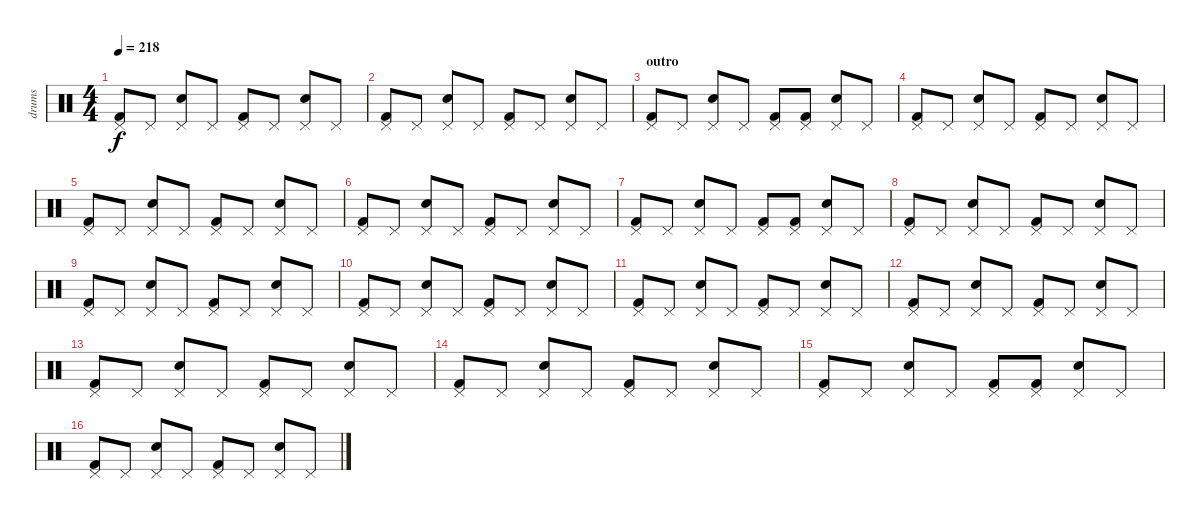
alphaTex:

\track ("drums" "drums") {instrument percussion}
\staff {score}
\articulation defaults
\ts (4 4)
\tempo 218
\clef neutral
\ks c
("Kick (hit) 2" "Pedal Hi-Hat (hit)").8{dy f} "Pedal Hi-Hat (hit)".8 ("Snare (hit) 2" "Pedal Hi-Hat (hit)").8 "Pedal Hi-Hat (hit)".8 ("Kick (hit) 2" "Pedal Hi-Hat (hit)").8 "Pedal Hi-Hat (hit)".8 ("Snare (hit) 2" "Pedal Hi-Hat (hit)").8 "Pedal Hi-Hat (hit)".8 |
("Kick (hit) 2" "Pedal Hi-Hat (hit)").8 "Pedal Hi-Hat (hit)".8 ("Snare (hit) 2" "Pedal Hi-Hat (hit)").8 "Pedal Hi-Hat (hit)".8 ("Kick (hit) 2" "Pedal Hi-Hat (hit)").8 "Pedal Hi-Hat (hit)".8 ("Snare (hit) 2" "Pedal Hi-Hat (hit)").8 "Pedal Hi-Hat (hit)".8 |
\section ("" "outro")
("Kick (hit) 2" "Pedal Hi-Hat (hit)").8 "Pedal Hi-Hat (hit)".8 ("Snare (hit) 2" "Pedal Hi-Hat (hit)").8 "Pedal Hi-Hat (hit)".8 ("Kick (hit) 2" "Pedal Hi-Hat (hit)").8 ("Kick (hit) 2" "Pedal Hi-Hat (hit)").8 ("Snare (hit) 2" "Pedal Hi-Hat (hit)").8 "Pedal Hi-Hat (hit)".8 |
("Kick (hit) 2" "Pedal Hi-Hat (hit)").8 "Pedal Hi-Hat (hit)".8 ("Snare (hit) 2" "Pedal Hi-Hat (hit)").8 "Pedal Hi-Hat (hit)".8 ("Kick (hit) 2" "Pedal Hi-Hat (hit)").8 "Pedal Hi-Hat (hit)".8 ("Snare (hit) 2" "Pedal Hi-Hat (hit)").8 "Pedal Hi-Hat (hit)".8 |
("Kick (hit) 2" "Pedal Hi-Hat (hit)").8 "Pedal Hi-Hat (hit)".8 ("Snare (hit) 2" "Pedal Hi-Hat (hit)").8 "Pedal Hi-Hat (hit)".8 ("Kick (hit) 2" "Pedal Hi-Hat (hit)").8 "Pedal Hi-Hat (hit)".8 ("Snare (hit) 2" "Pedal Hi-Hat (hit)").8 "Pedal Hi-Hat (hit)".8 |
("Kick (hit) 2" "Pedal Hi-Hat (hit)").8 "Pedal Hi-Hat (hit)".8 ("Snare (hit) 2" "Pedal Hi-Hat (hit)").8 "Pedal Hi-Hat (hit)".8 ("Kick (hit) 2" "Pedal Hi-Hat (hit)").8 "Pedal Hi-Hat (hit)".8 ("Snare (hit) 2" "Pedal Hi-Hat (hit)").8 "Pedal Hi-Hat (hit)".8 |
("Kick (hit) 2" "Pedal Hi-Hat (hit)").8 "Pedal Hi-Hat (hit)".8 ("Snare (hit) 2" "Pedal Hi-Hat (hit)").8 "Pedal Hi-Hat (hit)".8 ("Kick (hit) 2" "Pedal Hi-Hat (hit)").8 ("Kick (hit) 2" "Pedal Hi-Hat (hit)").8 ("Snare (hit) 2" "Pedal Hi-Hat (hit)").8 "Pedal Hi-Hat (hit)".8 |
("Kick (hit) 2" "Pedal Hi-Hat (hit)").8 "Pedal Hi-Hat (hit)".8 ("Snare (hit) 2" "Pedal Hi-Hat (hit)").8 "Pedal Hi-Hat (hit)".8 ("Kick (hit) 2" "Pedal Hi-Hat (hit)").8 "Pedal Hi-Hat (hit)".8 ("Snare (hit) 2" "Pedal Hi-Hat (hit)").8 "Pedal Hi-Hat (hit)".8 |
("Kick (hit) 2" "Pedal Hi-Hat (hit)").8 "Pedal Hi-Hat (hit)".8 ("Snare (hit) 2" "Pedal Hi-Hat (hit)").8 "Pedal Hi-Hat (hit)".8 ("Kick (hit) 2" "Pedal Hi-Hat (hit)").8 "Pedal Hi-Hat (hit)".8 ("Snare (hit) 2" "Pedal Hi-Hat (hit)").8 "Pedal Hi-Hat (hit)".8 |
("Kick (hit) 2" "Pedal Hi-Hat (hit)").8 "Pedal Hi-Hat (hit)".8 ("Snare (hit) 2" "Pedal Hi-Hat (hit)").8 "Pedal Hi-Hat (hit)".8 ("Kick (hit) 2" "Pedal Hi-Hat (hit)").8 "Pedal Hi-Hat (hit)".8 ("Snare (hit) 2" "Pedal Hi-Hat (hit)").8 "Pedal Hi-Hat (hit)".8 |
("Kick (hit) 2" "Pedal Hi-Hat (hit)").8 "Pedal Hi-Hat (hit)".8 ("Snare (hit) 2" "Pedal Hi-Hat (hit)").8 "Pedal Hi-Hat (hit)".8 ("Kick (hit) 2" "Pedal Hi-Hat (hit)").8 "Pedal Hi-Hat (hit)".8 ("Snare (hit) 2" "Pedal Hi-Hat (hit)").8 "Pedal Hi-Hat (hit)".8 |
("Kick (hit) 2" "Pedal Hi-Hat (hit)").8 "Pedal Hi-Hat (hit)".8 ("Snare (hit) 2" "Pedal Hi-Hat (hit)").8 "Pedal Hi-Hat (hit)".8 ("Kick (hit) 2" "Pedal Hi-Hat (hit)").8 "Pedal Hi-Hat (hit)".8 ("Snare (hit) 2" "Pedal Hi-Hat (hit)").8 "Pedal Hi-Hat (hit)".8 |
("Kick (hit) 2" "Pedal Hi-Hat (hit)").8 "Pedal Hi-Hat (hit)".8 ("Snare (hit) 2" "Pedal Hi-Hat (hit)").8 "Pedal Hi-Hat (hit)".8 ("Kick (hit) 2" "Pedal Hi-Hat (hit)").8 "Pedal Hi-Hat (hit)".8 ("Snare (hit) 2" "Pedal Hi-Hat (hit)").8 "Pedal Hi-Hat (hit)".8 |
("Kick (hit) 2" "Pedal Hi-Hat (hit)").8 "Pedal Hi-Hat (hit)".8 ("Snare (hit) 2" "Pedal Hi-Hat (hit)").8 "Pedal Hi-Hat (hit)".8 ("Kick (hit) 2" "Pedal Hi-Hat (hit)").8 "Pedal Hi-Hat (hit)".8 ("Snare (hit) 2" "Pedal Hi-Hat (hit)").8 "Pedal Hi-Hat (hit)".8 |
("Kick (hit) 2" "Pedal Hi-Hat (hit)").8 "Pedal Hi-Hat (hit)".8 ("Snare (hit) 2" "Pedal Hi-Hat (hit)").8 "Pedal Hi-Hat (hit)".8 ("Kick (hit) 2" "Pedal Hi-Hat (hit)").8 ("Kick (hit) 2" "Pedal Hi-Hat (hit)").8 ("Snare (hit) 2" "Pedal Hi-Hat (hit)").8 "Pedal Hi-Hat (hit)".8 |
("Kick (hit) 2" "Pedal Hi-Hat (hit)").8 "Pedal Hi-Hat (hit)".8 ("Snare (hit) 2" "Pedal Hi-Hat (hit)").8 "Pedal Hi-Hat (hit)".8 ("Kick (hit) 2" "Pedal Hi-Hat (hit)").8 "Pedal Hi-Hat (hit)".8 ("Snare (hit) 2" "Pedal Hi-Hat (hit)").8 "Pedal Hi-Hat (hit)".8
